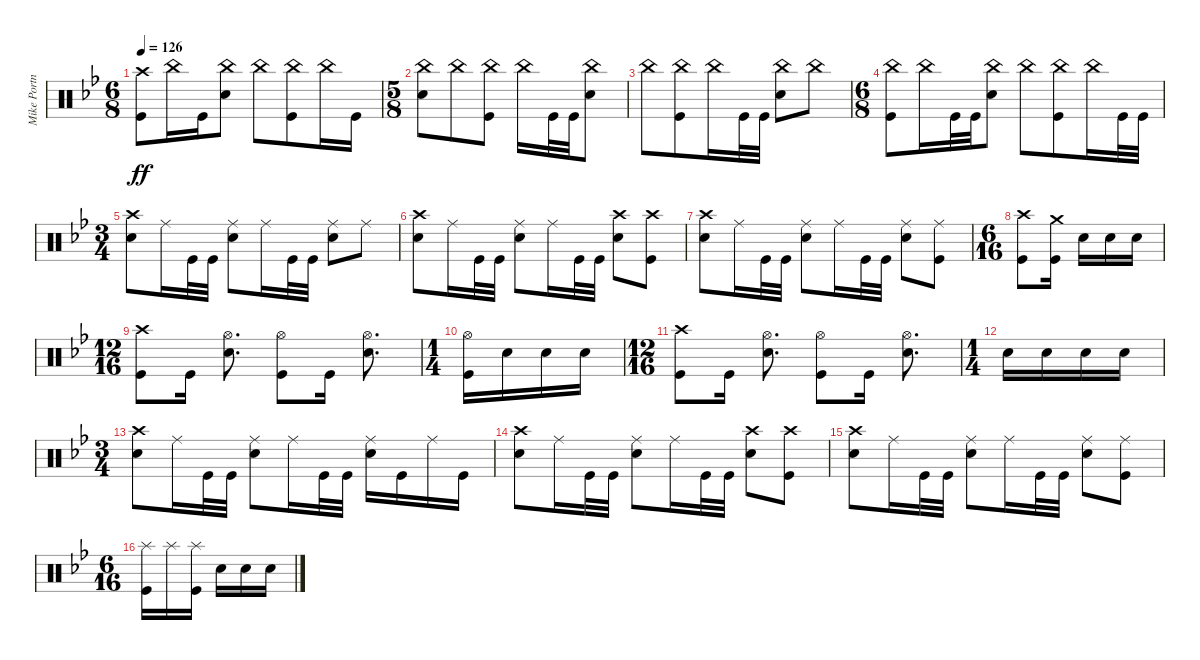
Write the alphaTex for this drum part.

\track ("Mike Portnoy - Drums" "Mike Portn") {instrument percussion}
\staff {score}
\articulation defaults
\ts (6 8)
\tempo 126
\clef neutral
\ks gminor
("Crash high (hit)" "Kick (hit)").8{dy ff} "China (hit)".16 "Kick (hit)".16 ("China (hit)" "Snare (hit) 2").8 "China (hit)".8 ("China (hit)" "Kick (hit)").8 "China (hit)".16 "Kick (hit)".16 |
\ts (5 8)
("China (hit)" "Snare (hit) 2").8 "China (hit)".8 ("China (hit)" "Kick (hit)").8 "China (hit)".16 "Kick (hit)".32 "Kick (hit)".32 ("China (hit)" "Snare (hit) 2").8 |
"China (hit)".8 ("China (hit)" "Kick (hit)").8 "China (hit)".16 "Kick (hit)".32 "Kick (hit)".32 ("China (hit)" "Snare (hit) 2").8 "China (hit)".8 |
\ts (6 8)
("China (hit)" "Kick (hit)").8 "China (hit)".16 "Kick (hit)".32 "Kick (hit)".32 ("China (hit)" "Snare (hit) 2").8 "China (hit)".8 ("China (hit)" "Kick (hit)").8 "China (hit)".16 "Kick (hit)".32 "Kick (hit)".32 |
\ts (3 4)
("Crash high (hit)" "Snare (hit) 2").8 "Ride (middle)".16 "Kick (hit)".32 "Kick (hit)".32 ("Ride (middle)" "Snare (hit) 2").8 "Ride (middle)".16 "Kick (hit)".32 "Kick (hit)".32 ("Ride (middle)" "Snare (hit) 2").8 "Ride (middle)".8 |
("Crash high (hit)" "Snare (hit) 2").8 "Ride (middle)".16 "Kick (hit)".32 "Kick (hit)".32 ("Ride (middle)" "Snare (hit) 2").8 "Ride (middle)".16 "Kick (hit)".32 "Kick (hit)".32 ("Crash high (hit)" "Snare (hit) 2").8 ("Crash high (hit)" "Kick (hit)").8 |
("Crash high (hit)" "Snare (hit) 2").8 "Ride (middle)".16 "Kick (hit)".32 "Kick (hit)".32 ("Ride (middle)" "Snare (hit) 2").8 "Ride (middle)".16 "Kick (hit)".32 "Kick (hit)".32 ("Ride (middle)" "Snare (hit) 2").8 ("Ride (middle)" "Kick (hit)").8 |
\ts (6 16)
("Crash high (hit)" "Kick (hit)").8 ("Crash medium (hit)" "Kick (hit)").16 "Snare (hit) 2".16 "Snare (hit) 2".16 "Snare (hit) 2".16 |
\ts (12 16)
("Crash high (hit)" "Kick (hit)").8 "Kick (hit)".16 ("Hi-Hat (open)" "Snare (hit) 2").8{d} ("Hi-Hat (open)" "Kick (hit)").8 "Kick (hit)".16 ("Hi-Hat (open)" "Snare (hit) 2").8{d} |
\ts (1 4)
("Hi-Hat (open)" "Kick (hit)").16 "Snare (hit) 2".16 "Snare (hit) 2".16 "Snare (hit) 2".16 |
\ts (12 16)
("Crash high (hit)" "Kick (hit)").8 "Kick (hit)".16 ("Hi-Hat (open)" "Snare (hit) 2").8{d} ("Hi-Hat (open)" "Kick (hit)").8 "Kick (hit)".16 ("Hi-Hat (open)" "Snare (hit) 2").8{d} |
\ts (1 4)
"Snare (hit) 2".16 "Snare (hit) 2".16 "Snare (hit) 2".16 "Snare (hit) 2".16 |
\ts (3 4)
("Crash high (hit)" "Snare (hit) 2").8 "Ride (middle)".16 "Kick (hit)".32 "Kick (hit)".32 ("Ride (middle)" "Snare (hit) 2").8 "Ride (middle)".16 "Kick (hit)".32 "Kick (hit)".32 ("Ride (middle)" "Snare (hit) 2").16 "Kick (hit)".16 "Ride (middle)".16 "Kick (hit)".16 |
("Crash high (hit)" "Snare (hit) 2").8 "Ride (middle)".16 "Kick (hit)".32 "Kick (hit)".32 ("Ride (middle)" "Snare (hit) 2").8 "Ride (middle)".16 "Kick (hit)".32 "Kick (hit)".32 ("Crash high (hit)" "Snare (hit) 2").8 ("Crash high (hit)" "Kick (hit)").8 |
("Crash high (hit)" "Snare (hit) 2").8 "Ride (middle)".16 "Kick (hit)".32 "Kick (hit)".32 ("Ride (middle)" "Snare (hit) 2").8 "Ride (middle)".16 "Kick (hit)".32 "Kick (hit)".32 ("Ride (middle)" "Snare (hit) 2").8 ("Ride (middle)" "Kick (hit)").8 |
\ts (6 16)
("Splash (hit)" "Kick (hit)").16 "Splash (hit)".16 ("Splash (hit)" "Kick (hit)").16 "Snare (hit) 2".16 "Snare (hit) 2".16 "Snare (hit) 2".16
